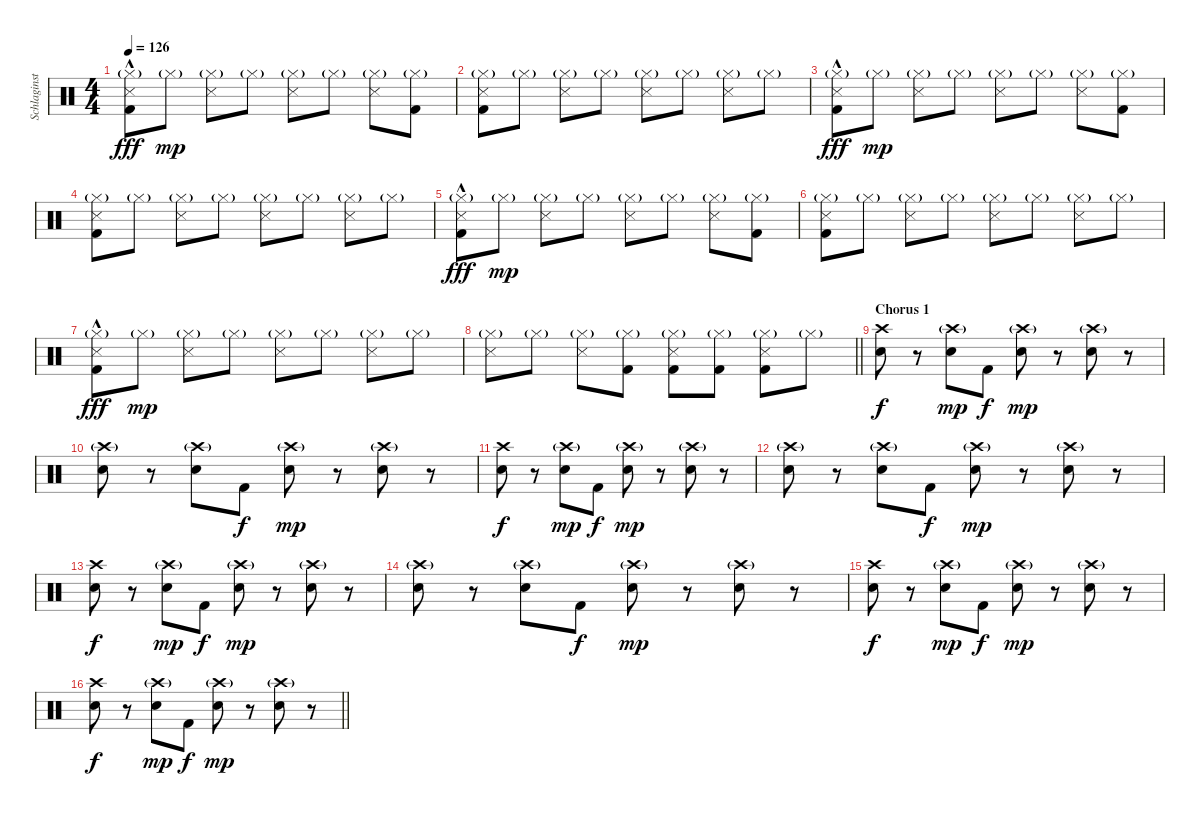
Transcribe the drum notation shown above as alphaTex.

\track ("Schlaginstrumente - Auswahl" "Schlaginst") {instrument percussion}
\staff {score}
\articulation defaults
\ts (4 4)
\tempo 126
\clef neutral
\ks c
("Hi-Hat (closed)"{g} "Snare (side stick) 3" "Kick (hit) 2"{hac}).8{dy fff} "Hi-Hat (closed)"{g}.8{dy mp} ("Hi-Hat (closed)"{g} "Snare (side stick) 3").8 "Hi-Hat (closed)"{g}.8 ("Hi-Hat (closed)"{g} "Snare (side stick) 3").8 "Hi-Hat (closed)"{g}.8 ("Hi-Hat (closed)"{g} "Snare (side stick) 3").8 ("Hi-Hat (closed)"{g} "Kick (hit) 2").8 |
("Hi-Hat (closed)"{g} "Snare (side stick) 3" "Kick (hit) 2").8 "Hi-Hat (closed)"{g}.8 ("Hi-Hat (closed)"{g} "Snare (side stick) 3").8 "Hi-Hat (closed)"{g}.8 ("Hi-Hat (closed)"{g} "Snare (side stick) 3").8 "Hi-Hat (closed)"{g}.8 ("Hi-Hat (closed)"{g} "Snare (side stick) 3").8 "Hi-Hat (closed)"{g}.8 |
("Hi-Hat (closed)"{g} "Snare (side stick) 3" "Kick (hit) 2"{hac}).8{dy fff} "Hi-Hat (closed)"{g}.8{dy mp} ("Hi-Hat (closed)"{g} "Snare (side stick) 3").8 "Hi-Hat (closed)"{g}.8 ("Hi-Hat (closed)"{g} "Snare (side stick) 3").8 "Hi-Hat (closed)"{g}.8 ("Hi-Hat (closed)"{g} "Snare (side stick) 3").8 ("Hi-Hat (closed)"{g} "Kick (hit) 2").8 |
("Hi-Hat (closed)"{g} "Snare (side stick) 3" "Kick (hit) 2").8 "Hi-Hat (closed)"{g}.8 ("Hi-Hat (closed)"{g} "Snare (side stick) 3").8 "Hi-Hat (closed)"{g}.8 ("Hi-Hat (closed)"{g} "Snare (side stick) 3").8 "Hi-Hat (closed)"{g}.8 ("Hi-Hat (closed)"{g} "Snare (side stick) 3").8 "Hi-Hat (closed)"{g}.8 |
("Hi-Hat (closed)"{g} "Snare (side stick) 3" "Kick (hit) 2"{hac}).8{dy fff} "Hi-Hat (closed)"{g}.8{dy mp} ("Hi-Hat (closed)"{g} "Snare (side stick) 3").8 "Hi-Hat (closed)"{g}.8 ("Hi-Hat (closed)"{g} "Snare (side stick) 3").8 "Hi-Hat (closed)"{g}.8 ("Hi-Hat (closed)"{g} "Snare (side stick) 3").8 ("Hi-Hat (closed)"{g} "Kick (hit) 2").8 |
("Hi-Hat (closed)"{g} "Snare (side stick) 3" "Kick (hit) 2").8 "Hi-Hat (closed)"{g}.8 ("Hi-Hat (closed)"{g} "Snare (side stick) 3").8 "Hi-Hat (closed)"{g}.8 ("Hi-Hat (closed)"{g} "Snare (side stick) 3").8 "Hi-Hat (closed)"{g}.8 ("Hi-Hat (closed)"{g} "Snare (side stick) 3").8 "Hi-Hat (closed)"{g}.8 |
("Hi-Hat (closed)"{g} "Snare (side stick) 3" "Kick (hit) 2"{hac}).8{dy fff} "Hi-Hat (closed)"{g}.8{dy mp} ("Hi-Hat (closed)"{g} "Snare (side stick) 3").8 "Hi-Hat (closed)"{g}.8 ("Hi-Hat (closed)"{g} "Snare (side stick) 3").8 "Hi-Hat (closed)"{g}.8 ("Hi-Hat (closed)"{g} "Snare (side stick) 3").8 "Hi-Hat (closed)"{g}.8 |
\barLineRight lightlight
("Hi-Hat (closed)"{g} "Snare (side stick) 3").8 "Hi-Hat (closed)"{g}.8 ("Hi-Hat (closed)"{g} "Snare (side stick) 3").8 ("Hi-Hat (closed)"{g} "Kick (hit) 2").8 ("Hi-Hat (closed)"{g} "Snare (side stick) 3" "Kick (hit) 2").8 ("Hi-Hat (closed)"{g} "Kick (hit) 2").8 ("Hi-Hat (closed)"{g} "Snare (side stick) 3" "Kick (hit) 2").8 "Hi-Hat (closed)"{g}.8 |
\section ("" "Chorus 1")
("Crash high (hit)" "Electric Snare (hit)").8{dy f} r.8 ("Crash high (hit)"{g} "Electric Snare (hit)").8{dy mp} "Kick (hit) 2".8{dy f} ("Crash high (hit)"{g} "Electric Snare (hit)").8{dy mp} r.8 ("Crash high (hit)"{g} "Electric Snare (hit)").8 r.8 |
("Crash high (hit)"{g} "Electric Snare (hit)").8 r.8 ("Crash high (hit)"{g} "Electric Snare (hit)").8 "Kick (hit) 2".8{dy f} ("Crash high (hit)"{g} "Electric Snare (hit)").8{dy mp} r.8 ("Crash high (hit)"{g} "Electric Snare (hit)").8 r.8 |
("Crash high (hit)" "Electric Snare (hit)").8{dy f} r.8 ("Crash high (hit)"{g} "Electric Snare (hit)").8{dy mp} "Kick (hit) 2".8{dy f} ("Crash high (hit)"{g} "Electric Snare (hit)").8{dy mp} r.8 ("Crash high (hit)"{g} "Electric Snare (hit)").8 r.8 |
("Crash high (hit)"{g} "Electric Snare (hit)").8 r.8 ("Crash high (hit)"{g} "Electric Snare (hit)").8 "Kick (hit) 2".8{dy f} ("Crash high (hit)"{g} "Electric Snare (hit)").8{dy mp} r.8 ("Crash high (hit)"{g} "Electric Snare (hit)").8 r.8 |
("Crash high (hit)" "Electric Snare (hit)").8{dy f} r.8 ("Crash high (hit)"{g} "Electric Snare (hit)").8{dy mp} "Kick (hit) 2".8{dy f} ("Crash high (hit)"{g} "Electric Snare (hit)").8{dy mp} r.8 ("Crash high (hit)"{g} "Electric Snare (hit)").8 r.8 |
("Crash high (hit)"{g} "Electric Snare (hit)").8 r.8 ("Crash high (hit)"{g} "Electric Snare (hit)").8 "Kick (hit) 2".8{dy f} ("Crash high (hit)"{g} "Electric Snare (hit)").8{dy mp} r.8 ("Crash high (hit)"{g} "Electric Snare (hit)").8 r.8 |
("Crash high (hit)" "Electric Snare (hit)").8{dy f} r.8 ("Crash high (hit)"{g} "Electric Snare (hit)").8{dy mp} "Kick (hit) 2".8{dy f} ("Crash high (hit)"{g} "Electric Snare (hit)").8{dy mp} r.8 ("Crash high (hit)"{g} "Electric Snare (hit)").8 r.8 |
\barLineRight lightlight
("Crash high (hit)" "Electric Snare (hit)").8{dy f} r.8 ("Crash high (hit)"{g} "Electric Snare (hit)").8{dy mp} "Kick (hit) 2".8{dy f} ("Crash high (hit)"{g} "Electric Snare (hit)").8{dy mp} r.8 ("Crash high (hit)"{g} "Electric Snare (hit)").8 r.8
